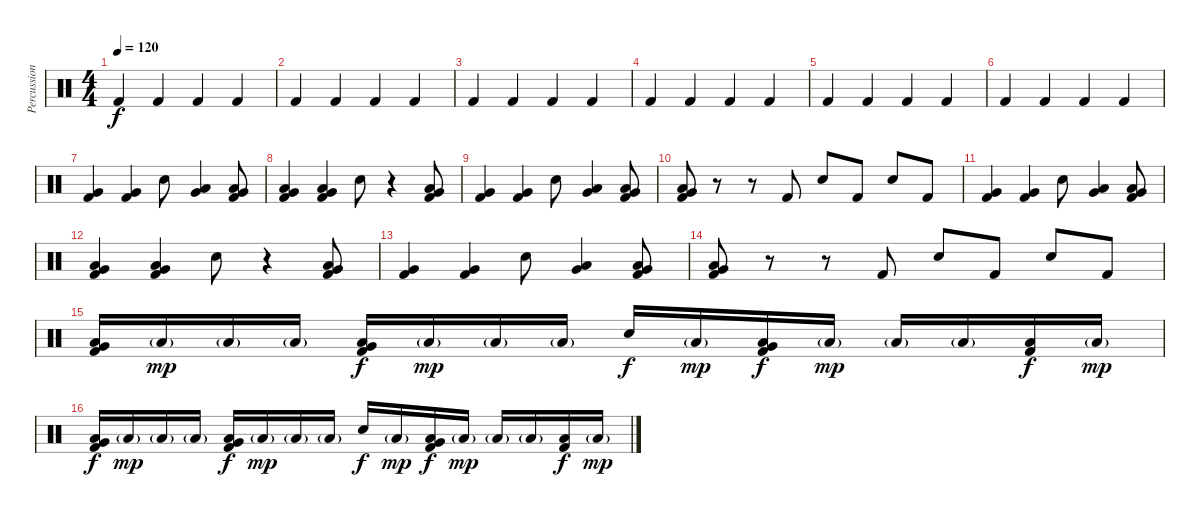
\track ("Percussion" "Percussion") {instrument percussion}
\staff {score}
\articulation defaults
\ts (4 4)
\tempo 120
\clef neutral
\ks c "Kick (hit) 2".4{dy f} "Kick (hit) 2".4 "Kick (hit) 2".4 "Kick (hit) 2".4
|
"Kick (hit) 2".4 "Kick (hit) 2".4 "Kick (hit) 2".4 "Kick (hit) 2".4 |
"Kick (hit) 2".4 "Kick (hit) 2".4 "Kick (hit) 2".4 "Kick (hit) 2".4 |
"Kick (hit) 2".4 "Kick (hit) 2".4 "Kick (hit) 2".4 "Kick (hit) 2".4 |
"Kick (hit) 2".4 "Kick (hit) 2".4 "Kick (hit) 2".4 "Kick (hit) 2".4 |
"Kick (hit) 2".4 "Kick (hit) 2".4 "Kick (hit) 2".4 "Kick (hit) 2".4 |
("Very Low Tom (hit)" "Kick (hit) 2").4 ("Very Low Tom (hit)" "Kick (hit) 2").4 "Electric Snare (hit)".8 ("Very Low Tom (hit)" "Low Floor Tom (hit)").4 ("Very Low Tom (hit)" "Low Floor Tom (hit)" "Kick (hit) 2").8 |
("Very Low Tom (hit)" "Low Floor Tom (hit)" "Kick (hit) 2").4 ("Very Low Tom (hit)" "Low Floor Tom (hit)" "Kick (hit) 2").4 "Electric Snare (hit)".8 r.4 ("Very Low Tom (hit)" "Low Floor Tom (hit)" "Kick (hit) 2").8 |
("Very Low Tom (hit)" "Kick (hit) 2").4 ("Very Low Tom (hit)" "Kick (hit) 2").4 "Electric Snare (hit)".8 ("Very Low Tom (hit)" "Low Floor Tom (hit)").4 ("Very Low Tom (hit)" "Low Floor Tom (hit)" "Kick (hit) 2").8 |
("Very Low Tom (hit)" "Low Floor Tom (hit)" "Kick (hit) 2").8 r.8 r.8 "Kick (hit) 2".8 "Electric Snare (hit)".8 "Kick (hit) 2".8 "Electric Snare (hit)".8 "Kick (hit) 2".8 |
("Very Low Tom (hit)" "Kick (hit) 2").4 ("Very Low Tom (hit)" "Kick (hit) 2").4 "Electric Snare (hit)".8 ("Very Low Tom (hit)" "Low Floor Tom (hit)").4 ("Very Low Tom (hit)" "Low Floor Tom (hit)" "Kick (hit) 2").8 |
("Very Low Tom (hit)" "Low Floor Tom (hit)" "Kick (hit) 2").4 ("Very Low Tom (hit)" "Low Floor Tom (hit)" "Kick (hit) 2").4 "Electric Snare (hit)".8 r.4 ("Very Low Tom (hit)" "Low Floor Tom (hit)" "Kick (hit) 2").8 |
("Very Low Tom (hit)" "Kick (hit) 2").4 ("Very Low Tom (hit)" "Kick (hit) 2").4 "Electric Snare (hit)".8 ("Very Low Tom (hit)" "Low Floor Tom (hit)").4 ("Very Low Tom (hit)" "Low Floor Tom (hit)" "Kick (hit) 2").8 |
("Very Low Tom (hit)" "Low Floor Tom (hit)" "Kick (hit) 2").8 r.8 r.8 "Kick (hit) 2".8 "Electric Snare (hit)".8 "Kick (hit) 2".8 "Electric Snare (hit)".8 "Kick (hit) 2".8 |
("Very Low Tom (hit)" "Low Floor Tom (hit)" "Kick (hit) 2").16 "Low Floor Tom (hit)"{g}.16{dy mp} "Low Floor Tom (hit)"{g}.16 "Low Floor Tom (hit)"{g}.16 ("Very Low Tom (hit)" "Low Floor Tom (hit)" "Kick (hit) 2").16{dy f} "Low Floor Tom (hit)"{g}.16{dy mp} "Low Floor Tom (hit)"{g}.16 "Low Floor Tom (hit)"{g}.16 "Electric Snare (hit)".16{dy f} "Low Floor Tom (hit)"{g}.16{dy mp} ("Very Low Tom (hit)" "Low Floor Tom (hit)" "Kick (hit) 2").16{dy f} "Low Floor Tom (hit)"{g}.16{dy mp} "Low Floor Tom (hit)"{g}.16 "Low Floor Tom (hit)"{g}.16 ("Low Floor Tom (hit)" "Kick (hit) 2").16{dy f} "Low Floor Tom (hit)"{g}.16{dy mp} |
("Very Low Tom (hit)" "Low Floor Tom (hit)" "Kick (hit) 2").16{dy f} "Low Floor Tom (hit)"{g}.16{dy mp} "Low Floor Tom (hit)"{g}.16 "Low Floor Tom (hit)"{g}.16 ("Very Low Tom (hit)" "Low Floor Tom (hit)" "Kick (hit) 2").16{dy f} "Low Floor Tom (hit)"{g}.16{dy mp} "Low Floor Tom (hit)"{g}.16 "Low Floor Tom (hit)"{g}.16 "Electric Snare (hit)".16{dy f} "Low Floor Tom (hit)"{g}.16{dy mp} ("Very Low Tom (hit)" "Low Floor Tom (hit)" "Kick (hit) 2").16{dy f} "Low Floor Tom (hit)"{g}.16{dy mp} "Low Floor Tom (hit)"{g}.16 "Low Floor Tom (hit)"{g}.16 ("Low Floor Tom (hit)" "Kick (hit) 2").16{dy f} "Low Floor Tom (hit)"{g}.16{dy mp}
